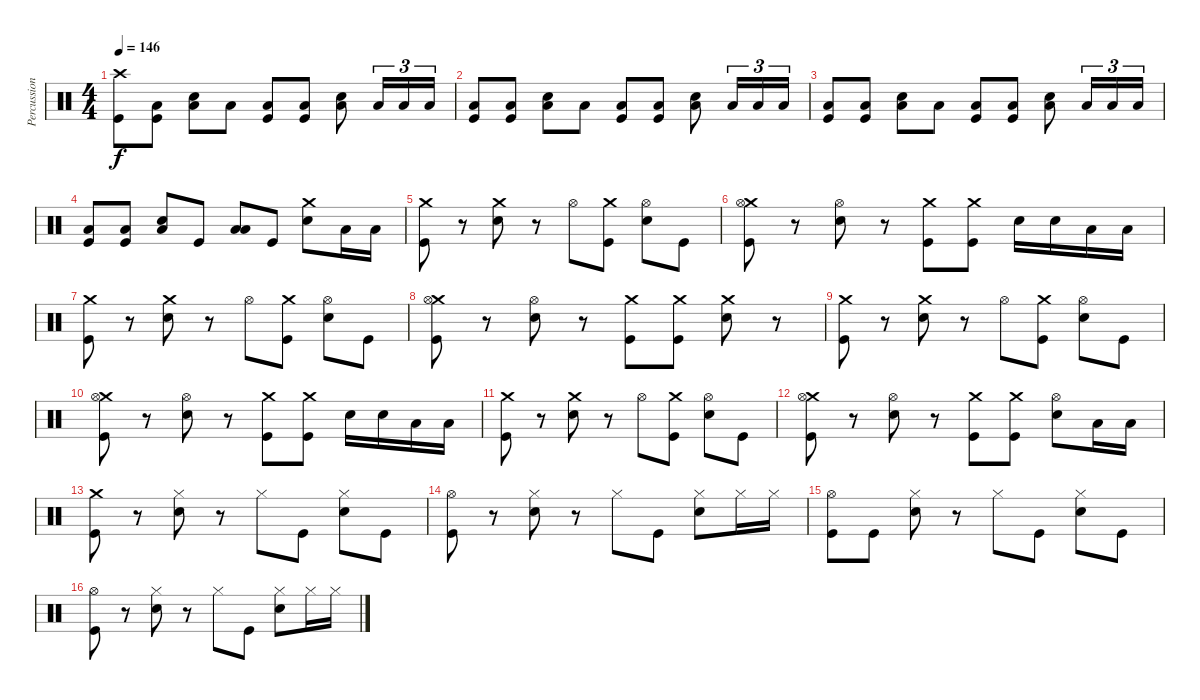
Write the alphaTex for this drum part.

\track ("Percussion" "Percussion") {instrument percussion}
\staff {score}
\articulation defaults
\ts (4 4)
\tempo 146
\clef neutral
\ks c
("Crash high (hit)" "Kick (hit)").8{dy f} ("Low Floor Tom (hit)" "Kick (hit)").8 ("Low Floor Tom (hit)" "Snare (hit) 2").8 "Low Floor Tom (hit)".8 ("Low Floor Tom (hit)" "Kick (hit)").8 ("Low Floor Tom (hit)" "Kick (hit)").8 ("Low Floor Tom (hit)" "Snare (hit) 2").8 "Low Floor Tom (hit)".16{tu (3 2)} "Low Tom (hit)".16{tu (3 2)} "Low Floor Tom (hit)".16{tu (3 2)} |
("Low Floor Tom (hit)" "Kick (hit)").8 ("Low Floor Tom (hit)" "Kick (hit)").8 ("Low Floor Tom (hit)" "Snare (hit) 2").8 "Low Floor Tom (hit)".8 ("Low Floor Tom (hit)" "Kick (hit)").8 ("Low Floor Tom (hit)" "Kick (hit)").8 ("Low Floor Tom (hit)" "Snare (hit) 2").8 "Low Floor Tom (hit)".16{tu (3 2)} "Low Tom (hit)".16{tu (3 2)} "Low Floor Tom (hit)".16{tu (3 2)} |
("Low Floor Tom (hit)" "Kick (hit)").8 ("Low Floor Tom (hit)" "Kick (hit)").8 ("Low Floor Tom (hit)" "Snare (hit) 2").8 "Low Floor Tom (hit)".8 ("Low Floor Tom (hit)" "Kick (hit)").8 ("Low Floor Tom (hit)" "Kick (hit)").8 ("Low Floor Tom (hit)" "Snare (hit) 2").8 "Low Floor Tom (hit)".16{tu (3 2)} "Low Tom (hit)".16{tu (3 2)} "Low Floor Tom (hit)".16{tu (3 2)} |
("Low Floor Tom (hit)" "Kick (hit)").8 ("Low Floor Tom (hit)" "Kick (hit)").8 ("Low Floor Tom (hit)" "Snare (hit) 2").8 "Kick (hit)".8 ("Low Tom (hit)" "Low Floor Tom (hit)").8 "Kick (hit)".8 ("Crash medium (hit)" "Snare (hit) 2").8 "Low Floor Tom (hit)".16 "Low Floor Tom (hit)".16 |
("Crash medium (hit)" "Kick (hit)").8 r.8 ("Crash medium (hit)" "Snare (hit) 2").8 r.8 "Hi-Hat (open)".8 ("Crash medium (hit)" "Kick (hit)").8 ("Hi-Hat (open)" "Snare (hit) 2").8 "Kick (hit)".8 |
("Crash medium (hit)" "Hi-Hat (open)" "Kick (hit)").8 r.8 ("Hi-Hat (open)" "Snare (hit) 2").8 r.8 ("Crash medium (hit)" "Kick (hit)").8 ("Crash medium (hit)" "Kick (hit)").8 "Snare (hit) 2".16 "Snare (hit) 2".16 "Low Tom (hit)".16 "Low Floor Tom (hit)".16 |
("Crash medium (hit)" "Kick (hit)").8 r.8 ("Crash medium (hit)" "Snare (hit) 2").8 r.8 "Hi-Hat (open)".8 ("Crash medium (hit)" "Kick (hit)").8 ("Hi-Hat (open)" "Snare (hit) 2").8 "Kick (hit)".8 |
("Crash medium (hit)" "Hi-Hat (open)" "Kick (hit)").8 r.8 ("Hi-Hat (open)" "Snare (hit) 2").8 r.8 ("Crash medium (hit)" "Kick (hit)").8 ("Crash medium (hit)" "Kick (hit)").8 ("Crash medium (hit)" "Snare (hit) 2").8 r.8 |
("Crash medium (hit)" "Kick (hit)").8 r.8 ("Crash medium (hit)" "Snare (hit) 2").8 r.8 "Hi-Hat (open)".8 ("Crash medium (hit)" "Kick (hit)").8 ("Hi-Hat (open)" "Snare (hit) 2").8 "Kick (hit)".8 |
("Crash medium (hit)" "Hi-Hat (open)" "Kick (hit)").8 r.8 ("Hi-Hat (open)" "Snare (hit) 2").8 r.8 ("Crash medium (hit)" "Kick (hit)").8 ("Crash medium (hit)" "Kick (hit)").8 "Snare (hit) 2".16 "Snare (hit) 2".16 "Low Tom (hit)".16 "Low Floor Tom (hit)".16 |
("Crash medium (hit)" "Kick (hit)").8 r.8 ("Crash medium (hit)" "Snare (hit) 2").8 r.8 "Hi-Hat (open)".8 ("Crash medium (hit)" "Kick (hit)").8 ("Hi-Hat (open)" "Snare (hit) 2").8 "Kick (hit)".8 |
("Crash medium (hit)" "Hi-Hat (open)" "Kick (hit)").8 r.8 ("Hi-Hat (open)" "Snare (hit) 2").8 r.8 ("Crash medium (hit)" "Kick (hit)").8 ("Crash medium (hit)" "Kick (hit)").8 ("Hi-Hat (open)" "Snare (hit) 2").8 "Low Floor Tom (hit)".16 "Low Floor Tom (hit)".16 |
("Crash medium (hit)" "Kick (hit)").8 r.8 ("Hi-Hat (closed)" "Snare (hit) 2").8 r.8 "Hi-Hat (closed)".8 "Kick (hit)".8 ("Hi-Hat (closed)" "Snare (hit) 2").8 "Kick (hit)".8 |
("Hi-Hat (open)" "Kick (hit)").8 r.8 ("Hi-Hat (closed)" "Snare (hit) 2").8 r.8 "Hi-Hat (closed)".8 "Kick (hit)".8 ("Hi-Hat (closed)" "Snare (hit) 2").8 "Hi-Hat (closed)".16 "Hi-Hat (closed)".16 |
("Hi-Hat (open)" "Kick (hit)").8 "Kick (hit)".8 ("Hi-Hat (closed)" "Snare (hit) 2").8 r.8 "Hi-Hat (closed)".8 "Kick (hit)".8 ("Hi-Hat (closed)" "Snare (hit) 2").8 "Kick (hit)".8 |
("Hi-Hat (open)" "Kick (hit)").8 r.8 ("Hi-Hat (closed)" "Snare (hit) 2").8 r.8 "Hi-Hat (closed)".8 "Kick (hit)".8 ("Hi-Hat (closed)" "Snare (hit) 2").8 "Hi-Hat (closed)".16 "Hi-Hat (closed)".16
